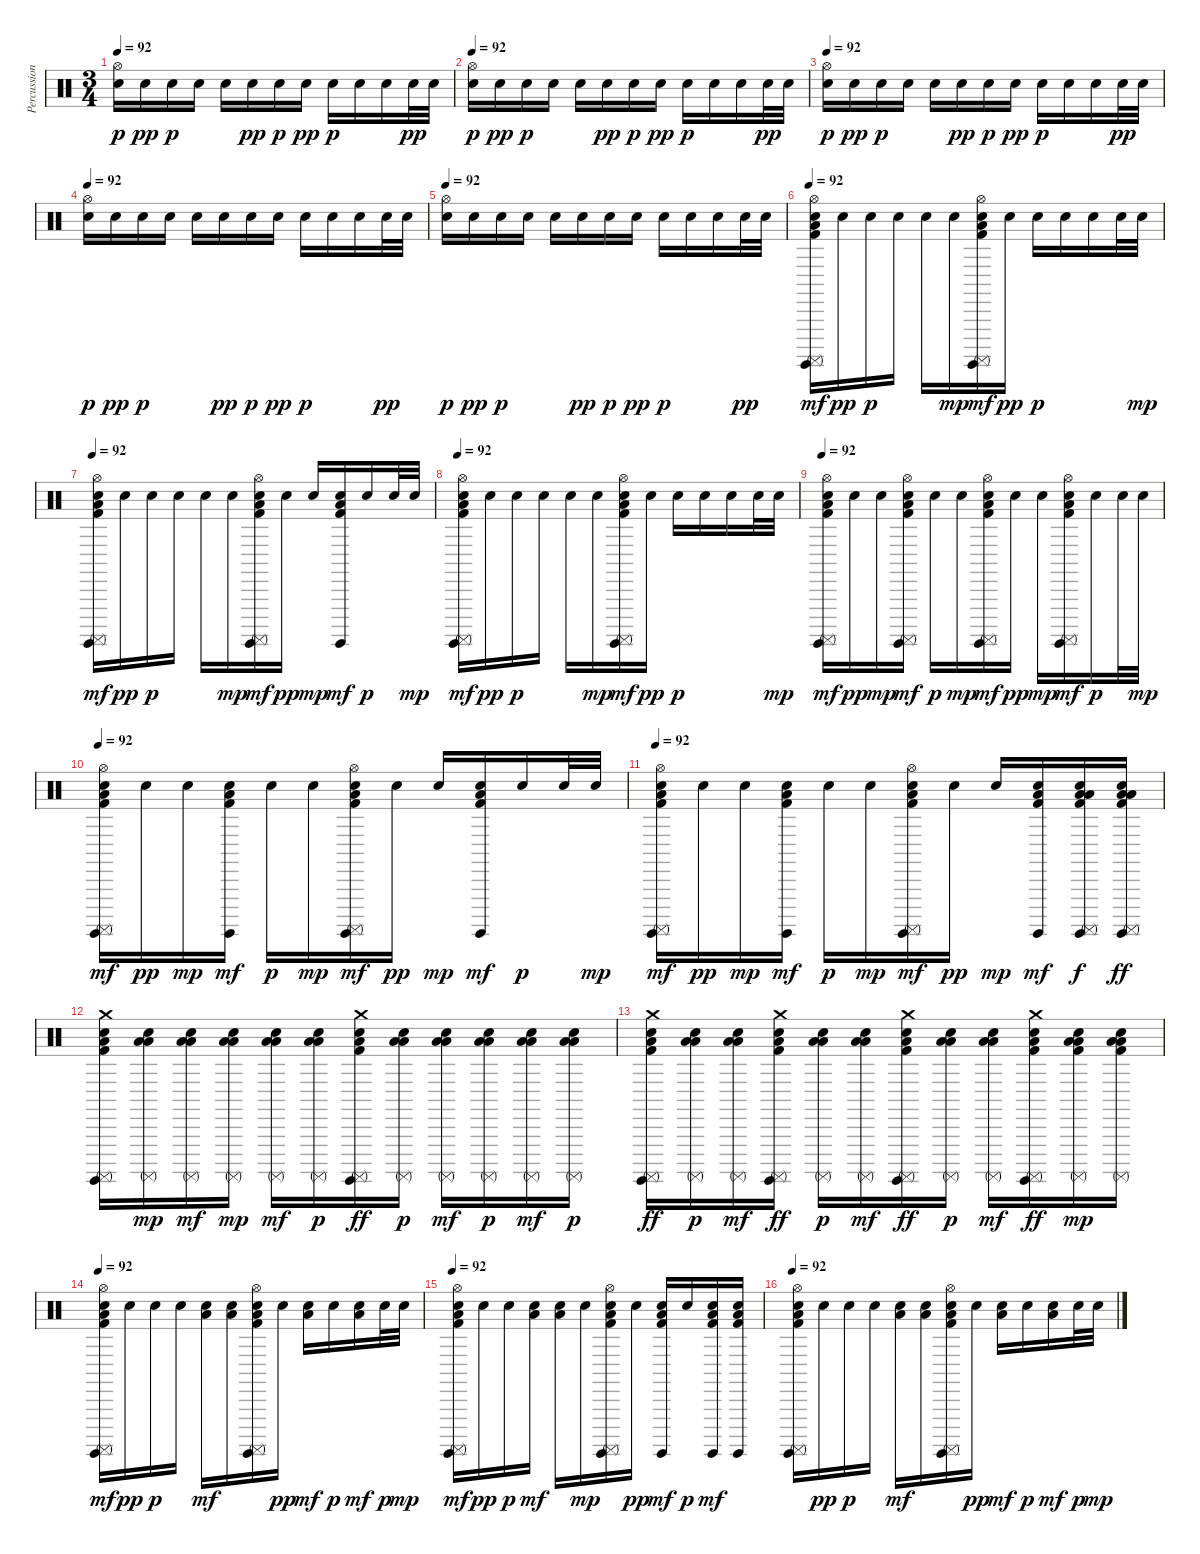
\track ("Percussion" "Percussion") {instrument percussion}
\staff
\articulation defaults
\ts (3 4)
\tempo 92
\clef neutral
\ks c
("Hi-Hat (open)" "Snare (hit) 2").16{dy p volume 2} "Snare (hit) 2".16{dy pp volume 3} "Snare (hit) 2".16{dy p} "Snare (hit) 2".16 "Snare (hit) 2".16 "Snare (hit) 2".16{dy pp} "Snare (hit) 2".16{dy p} "Snare (hit) 2".16{dy pp} "Snare (hit) 2".16{dy p} "Snare (hit) 2".16 "Snare (hit) 2".16 "Snare (hit) 2".32{dy pp} "Snare (hit) 2".32 |
\tempo 92
("Hi-Hat (open)" "Snare (hit) 2").16{dy p} "Snare (hit) 2".16{dy pp} "Snare (hit) 2".16{dy p} "Snare (hit) 2".16 "Snare (hit) 2".16 "Snare (hit) 2".16{dy pp} "Snare (hit) 2".16{dy p} "Snare (hit) 2".16{dy pp} "Snare (hit) 2".16{dy p} "Snare (hit) 2".16 "Snare (hit) 2".16 "Snare (hit) 2".32{dy pp} "Snare (hit) 2".32 |
\tempo 92
("Hi-Hat (open)" "Snare (hit) 2").16{dy p} "Snare (hit) 2".16{dy pp} "Snare (hit) 2".16{dy p} "Snare (hit) 2".16 "Snare (hit) 2".16 "Snare (hit) 2".16{dy pp} "Snare (hit) 2".16{dy p} "Snare (hit) 2".16{dy pp} "Snare (hit) 2".16{dy p} "Snare (hit) 2".16 "Snare (hit) 2".16 "Snare (hit) 2".32{dy pp} "Snare (hit) 2".32 |
\tempo 92
("Hi-Hat (open)" "Snare (hit) 2").16{dy p} "Snare (hit) 2".16{dy pp} "Snare (hit) 2".16{dy p} "Snare (hit) 2".16 "Snare (hit) 2".16 "Snare (hit) 2".16{dy pp} "Snare (hit) 2".16{dy p} "Snare (hit) 2".16{dy pp} "Snare (hit) 2".16{dy p} "Snare (hit) 2".16 "Snare (hit) 2".16 "Snare (hit) 2".32{dy pp} "Snare (hit) 2".32 |
\tempo 92
("Hi-Hat (open)" "Snare (hit) 2").16{dy p volume 4} "Snare (hit) 2".16{dy pp} "Snare (hit) 2".16{dy p} "Snare (hit) 2".16 "Snare (hit) 2".16 "Snare (hit) 2".16{dy pp} "Snare (hit) 2".16{dy p} "Snare (hit) 2".16{dy pp} "Snare (hit) 2".16{dy p} "Snare (hit) 2".16 "Snare (hit) 2".16 "Snare (hit) 2".32{dy pp} "Snare (hit) 2".32 |
\tempo 92
("Hi-Hat (open)" "Surdo (mute)" "Snare (hit) 2" "Surdo (hit)" "Low Floor Tom (hit)" "Kick (hit) 2").16{dy mf} "Snare (hit) 2".16{dy pp} "Snare (hit) 2".16{dy p} "Snare (hit) 2".16 "Snare (hit) 2".16 "Snare (hit) 2".16{dy mp} ("Hi-Hat (open)" "Surdo (mute)" "Snare (hit) 2" "Surdo (hit)" "Low Floor Tom (hit)" "Kick (hit) 2").16{dy mf} "Snare (hit) 2".16{dy pp} "Snare (hit) 2".16{dy p} "Snare (hit) 2".16 "Snare (hit) 2".16 "Snare (hit) 2".32 "Snare (hit) 2".32{dy mp} |
\tempo 92
("Hi-Hat (open)" "Surdo (mute)" "Snare (hit) 2" "Surdo (hit)" "Low Floor Tom (hit)" "Kick (hit) 2").16{dy mf} "Snare (hit) 2".16{dy pp} "Snare (hit) 2".16{dy p} "Snare (hit) 2".16 "Snare (hit) 2".16 "Snare (hit) 2".16{dy mp} ("Hi-Hat (open)" "Surdo (mute)" "Snare (hit) 2" "Surdo (hit)" "Low Floor Tom (hit)" "Kick (hit) 2").16{dy mf} "Snare (hit) 2".16{dy pp} "Snare (hit) 2".16{dy mp} ("Surdo (hit)" "Snare (hit) 2" "Low Floor Tom (hit)" "Kick (hit) 2").16{dy mf} "Snare (hit) 2".16{dy p} "Snare (hit) 2".32 "Snare (hit) 2".32{dy mp} |
\tempo 92
("Hi-Hat (open)" "Surdo (mute)" "Snare (hit) 2" "Surdo (hit)" "Low Floor Tom (hit)" "Kick (hit) 2").16{dy mf volume 5} "Snare (hit) 2".16{dy pp} "Snare (hit) 2".16{dy p} "Snare (hit) 2".16 "Snare (hit) 2".16 "Snare (hit) 2".16{dy mp} ("Hi-Hat (open)" "Surdo (mute)" "Snare (hit) 2" "Surdo (hit)" "Low Floor Tom (hit)" "Kick (hit) 2").16{dy mf} "Snare (hit) 2".16{dy pp} "Snare (hit) 2".16{dy p} "Snare (hit) 2".16 "Snare (hit) 2".16 "Snare (hit) 2".32 "Snare (hit) 2".32{dy mp} |
\tempo 92
("Hi-Hat (open)" "Surdo (mute)" "Snare (hit) 2" "Surdo (hit)" "Low Floor Tom (hit)" "Kick (hit) 2").16{dy mf} "Snare (hit) 2".16{dy pp} "Snare (hit) 2".16{dy mp} ("Hi-Hat (open)" "Surdo (mute)" "Snare (hit) 2" "Surdo (hit)" "Low Floor Tom (hit)" "Kick (hit) 2").16{dy mf} "Snare (hit) 2".16{dy p} "Snare (hit) 2".16{dy mp} ("Hi-Hat (open)" "Surdo (mute)" "Snare (hit) 2" "Surdo (hit)" "Low Floor Tom (hit)" "Kick (hit) 2").16{dy mf} "Snare (hit) 2".16{dy pp} "Snare (hit) 2".16{dy mp} ("Hi-Hat (open)" "Surdo (mute)" "Snare (hit) 2" "Surdo (hit)" "Low Floor Tom (hit)" "Kick (hit) 2").16{dy mf} "Snare (hit) 2".16{dy p} "Snare (hit) 2".32 "Snare (hit) 2".32{dy mp} |
\tempo 92
("Hi-Hat (open)" "Surdo (mute)" "Snare (hit) 2" "Surdo (hit)" "Low Floor Tom (hit)" "Kick (hit) 2").16{dy mf} "Snare (hit) 2".16{dy pp} "Snare (hit) 2".16{dy mp} ("Surdo (hit)" "Snare (hit) 2" "Low Floor Tom (hit)" "Kick (hit) 2").16{dy mf} "Snare (hit) 2".16{dy p} "Snare (hit) 2".16{dy mp} ("Hi-Hat (open)" "Surdo (mute)" "Snare (hit) 2" "Surdo (hit)" "Low Floor Tom (hit)" "Kick (hit) 2").16{dy mf} "Snare (hit) 2".16{dy pp} "Snare (hit) 2".16{dy mp} ("Surdo (hit)" "Snare (hit) 2" "Low Floor Tom (hit)" "Kick (hit) 2").16{dy mf} "Snare (hit) 2".16{dy p} "Snare (hit) 2".32 "Snare (hit) 2".32{dy mp} |
\tempo 92
("Hi-Hat (open)" "Surdo (mute)" "Snare (hit) 2" "Surdo (hit)" "Low Floor Tom (hit)" "Kick (hit) 2").16{dy mf volume 9} "Snare (hit) 2".16{dy pp} "Snare (hit) 2".16{dy mp} ("Surdo (hit)" "Snare (hit) 2" "Low Floor Tom (hit)" "Kick (hit) 2").16{dy mf} "Snare (hit) 2".16{dy p} "Snare (hit) 2".16{dy mp} ("Hi-Hat (open)" "Surdo (mute)" "Snare (hit) 2" "Surdo (hit)" "Low Floor Tom (hit)" "Kick (hit) 2").16{dy mf} "Snare (hit) 2".16{dy pp} "Snare (hit) 2".16{dy mp} ("Surdo (hit)" "Snare (hit) 2" "Low Floor Tom (hit)" "Kick (hit) 2").16{dy mf} ("Surdo (mute)" "Surdo (hit)" "Snare (hit) 2" "Low Floor Tom (hit)" "Low Floor Tom (hit)" "Kick (hit) 2").16{dy f} ("Surdo (mute)" "Surdo (hit)" "Snare (hit) 2" "Low Floor Tom (hit)" "Low Floor Tom (hit)" "Kick (hit) 2").16{dy ff} |
("Snare (hit) 2" "Surdo (hit)" "Surdo (mute)" "Crash medium (hit)" "Low Floor Tom (hit)" "Kick (hit) 2").16 ("Snare (hit) 2" "Surdo (mute)" "Low Floor Tom (hit)" "Low Floor Tom (hit)").16{dy mp} ("Snare (hit) 2" "Surdo (mute)" "Low Floor Tom (hit)" "Low Floor Tom (hit)").16{dy mf} ("Snare (hit) 2" "Surdo (mute)" "Low Floor Tom (hit)" "Low Floor Tom (hit)").16{dy mp} ("Snare (hit) 2" "Surdo (mute)" "Low Floor Tom (hit)" "Low Floor Tom (hit)").16{dy mf} ("Snare (hit) 2" "Surdo (mute)" "Low Floor Tom (hit)" "Low Floor Tom (hit)").16{dy p} ("Snare (hit) 2" "Surdo (hit)" "Surdo (mute)" "Crash medium (hit)" "Low Floor Tom (hit)" "Kick (hit) 2").16{dy ff volume 6} ("Snare (hit) 2" "Surdo (mute)" "Low Floor Tom (hit)" "Low Floor Tom (hit)").16{dy p} ("Snare (hit) 2" "Surdo (mute)" "Low Floor Tom (hit)" "Low Floor Tom (hit)").16{dy mf} ("Snare (hit) 2" "Surdo (mute)" "Low Floor Tom (hit)" "Low Floor Tom (hit)").16{dy p} ("Snare (hit) 2" "Surdo (mute)" "Low Floor Tom (hit)" "Low Floor Tom (hit)").16{dy mf} ("Snare (hit) 2" "Surdo (mute)" "Low Floor Tom (hit)" "Low Floor Tom (hit)").16{dy p} |
("Snare (hit) 2" "Surdo (hit)" "Surdo (mute)" "Crash medium (hit)" "Low Floor Tom (hit)" "Kick (hit) 2").16{dy ff} ("Snare (hit) 2" "Surdo (mute)" "Low Floor Tom (hit)" "Low Floor Tom (hit)").16{dy p} ("Snare (hit) 2" "Surdo (mute)" "Low Floor Tom (hit)" "Low Floor Tom (hit)").16{dy mf} ("Snare (hit) 2" "Surdo (hit)" "Surdo (mute)" "Crash medium (hit)" "Low Floor Tom (hit)" "Kick (hit) 2").16{dy ff} ("Snare (hit) 2" "Surdo (mute)" "Low Floor Tom (hit)" "Low Floor Tom (hit)").16{dy p} ("Snare (hit) 2" "Surdo (mute)" "Low Floor Tom (hit)" "Low Floor Tom (hit)").16{dy mf} ("Snare (hit) 2" "Surdo (hit)" "Surdo (mute)" "Crash medium (hit)" "Low Floor Tom (hit)" "Kick (hit) 2").16{dy ff} ("Snare (hit) 2" "Surdo (mute)" "Low Floor Tom (hit)" "Low Floor Tom (hit)").16{dy p} ("Snare (hit) 2" "Surdo (mute)" "Low Floor Tom (hit)" "Low Floor Tom (hit)").16{dy mf} ("Snare (hit) 2" "Surdo (hit)" "Surdo (mute)" "Crash medium (hit)" "Low Floor Tom (hit)" "Kick (hit) 2").16{dy ff} ("Snare (hit) 2" "Surdo (mute)" "Low Floor Tom (hit)" "Low Floor Tom (hit)" "Kick (hit) 2").16{dy mp} ("Snare (hit) 2" "Surdo (mute)" "Low Floor Tom (hit)" "Low Floor Tom (hit)" "Kick (hit) 2").16 |
\tempo 92
("Hi-Hat (open)" "Surdo (mute)" "Snare (hit) 2" "Surdo (hit)" "Low Floor Tom (hit)" "Kick (hit) 2").16{dy mf} "Snare (hit) 2".16{dy pp} "Snare (hit) 2".16{dy p} "Snare (hit) 2".16 ("Snare (hit) 2" "Low Floor Tom (hit)").16{dy mf} ("Snare (hit) 2" "Low Floor Tom (hit)").16 ("Hi-Hat (open)" "Surdo (mute)" "Snare (hit) 2" "Surdo (hit)" "Low Floor Tom (hit)" "Kick (hit) 2").16 "Snare (hit) 2".16{dy pp} ("Snare (hit) 2" "Low Floor Tom (hit)").16{dy mf} "Snare (hit) 2".16{dy p} ("Snare (hit) 2" "Low Floor Tom (hit)").16{dy mf} "Snare (hit) 2".32{dy p} "Snare (hit) 2".32{dy mp} |
\tempo 92
("Hi-Hat (open)" "Surdo (mute)" "Snare (hit) 2" "Surdo (hit)" "Low Floor Tom (hit)" "Kick (hit) 2").16{dy mf} "Snare (hit) 2".16{dy pp} "Snare (hit) 2".16{dy p} ("Snare (hit) 2" "Low Floor Tom (hit)").16{dy mf} ("Snare (hit) 2" "Low Floor Tom (hit)").16 "Snare (hit) 2".16{dy mp} ("Hi-Hat (open)" "Surdo (mute)" "Snare (hit) 2" "Surdo (hit)" "Low Floor Tom (hit)" "Kick (hit) 2").16 "Snare (hit) 2".16{dy pp} ("Surdo (hit)" "Snare (hit) 2" "Low Floor Tom (hit)" "Kick (hit) 2").16{dy mf} "Snare (hit) 2".16{dy p} ("Surdo (hit)" "Snare (hit) 2" "Low Floor Tom (hit)" "Kick (hit) 2").16{dy mf} ("Surdo (hit)" "Snare (hit) 2" "Low Floor Tom (hit)" "Kick (hit) 2").16 |
\tempo 92
("Hi-Hat (open)" "Surdo (mute)" "Snare (hit) 2" "Surdo (hit)" "Low Floor Tom (hit)" "Kick (hit) 2").16 "Snare (hit) 2".16{dy pp} "Snare (hit) 2".16{dy p} "Snare (hit) 2".16 ("Snare (hit) 2" "Low Floor Tom (hit)").16{dy mf} ("Snare (hit) 2" "Low Floor Tom (hit)").16 ("Hi-Hat (open)" "Surdo (mute)" "Snare (hit) 2" "Surdo (hit)" "Low Floor Tom (hit)" "Kick (hit) 2").16 "Snare (hit) 2".16{dy pp} ("Snare (hit) 2" "Low Floor Tom (hit)").16{dy mf} "Snare (hit) 2".16{dy p} ("Snare (hit) 2" "Low Floor Tom (hit)").16{dy mf} "Snare (hit) 2".32{dy p} "Snare (hit) 2".32{dy mp}
